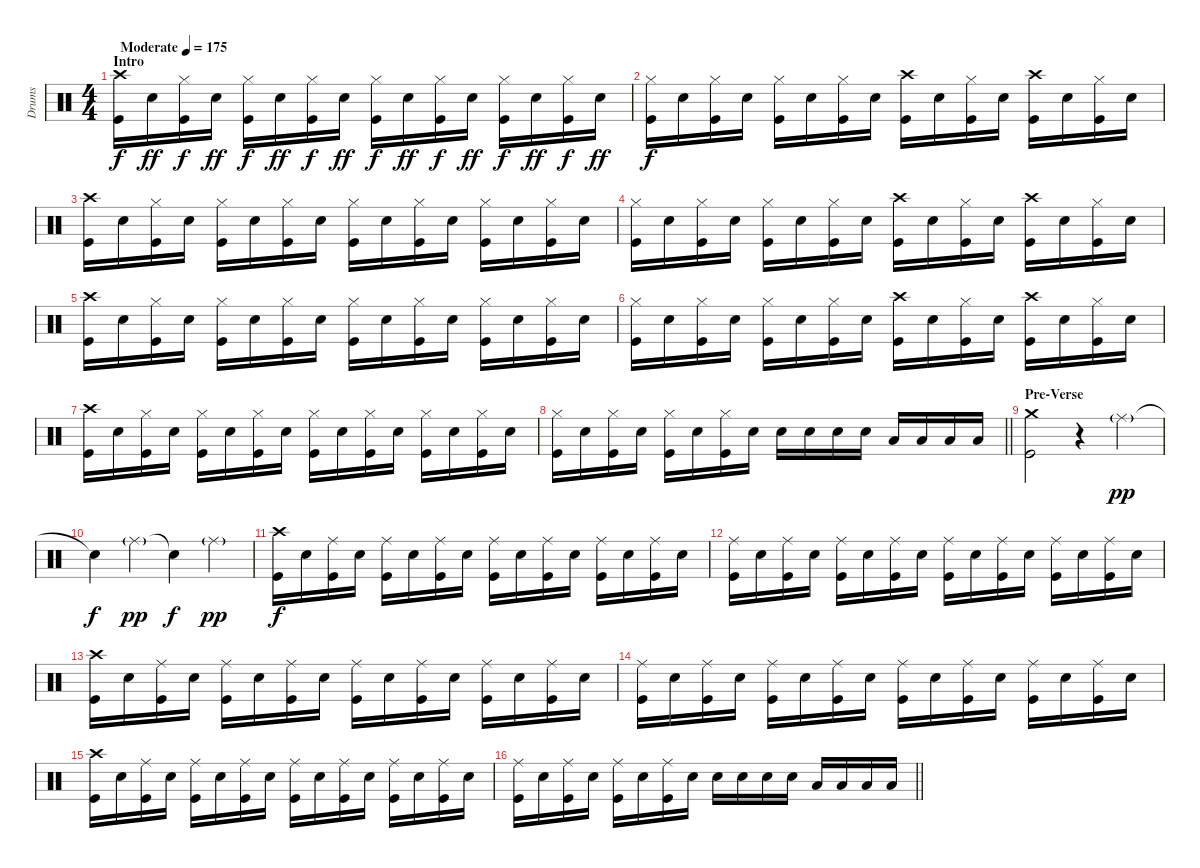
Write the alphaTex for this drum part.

\track ("Drums" "Drums") {instrument percussion}
\staff {score}
\articulation defaults
\ts (4 4)
\section ("" "Intro")
\tempo (175 "Moderate")
\clef neutral
\ks c
("Crash high (hit)" "Kick (hit)").16{dy f} "Snare (hit) 2".16{dy ff} ("Hi-Hat (closed)" "Kick (hit)").16{dy f} "Snare (hit) 2".16{dy ff} ("Hi-Hat (closed)" "Kick (hit)").16{dy f} "Snare (hit) 2".16{dy ff} ("Hi-Hat (closed)" "Kick (hit)").16{dy f} "Snare (hit) 2".16{dy ff} ("Hi-Hat (closed)" "Kick (hit)").16{dy f} "Snare (hit) 2".16{dy ff} ("Hi-Hat (closed)" "Kick (hit)").16{dy f} "Snare (hit) 2".16{dy ff} ("Hi-Hat (closed)" "Kick (hit)").16{dy f} "Snare (hit) 2".16{dy ff} ("Hi-Hat (closed)" "Kick (hit)").16{dy f} "Snare (hit) 2".16{dy ff} |
("Hi-Hat (closed)" "Kick (hit)").16{dy f} "Snare (hit) 2".16 ("Hi-Hat (closed)" "Kick (hit)").16 "Snare (hit) 2".16 ("Hi-Hat (closed)" "Kick (hit)").16 "Snare (hit) 2".16 ("Hi-Hat (closed)" "Kick (hit)").16 "Snare (hit) 2".16 ("Crash high (hit)" "Kick (hit)").16 "Snare (hit) 2".16 ("Hi-Hat (closed)" "Kick (hit)").16 "Snare (hit) 2".16 ("Crash high (hit)" "Kick (hit)").16 "Snare (hit) 2".16 ("Hi-Hat (closed)" "Kick (hit)").16 "Snare (hit) 2".16 |
("Crash high (hit)" "Kick (hit)").16 "Snare (hit) 2".16 ("Hi-Hat (closed)" "Kick (hit)").16 "Snare (hit) 2".16 ("Hi-Hat (closed)" "Kick (hit)").16 "Snare (hit) 2".16 ("Hi-Hat (closed)" "Kick (hit)").16 "Snare (hit) 2".16 ("Hi-Hat (closed)" "Kick (hit)").16 "Snare (hit) 2".16 ("Hi-Hat (closed)" "Kick (hit)").16 "Snare (hit) 2".16 ("Hi-Hat (closed)" "Kick (hit)").16 "Snare (hit) 2".16 ("Hi-Hat (closed)" "Kick (hit)").16 "Snare (hit) 2".16 |
("Hi-Hat (closed)" "Kick (hit)").16 "Snare (hit) 2".16 ("Hi-Hat (closed)" "Kick (hit)").16 "Snare (hit) 2".16 ("Hi-Hat (closed)" "Kick (hit)").16 "Snare (hit) 2".16 ("Hi-Hat (closed)" "Kick (hit)").16 "Snare (hit) 2".16 ("Crash high (hit)" "Kick (hit)").16 "Snare (hit) 2".16 ("Hi-Hat (closed)" "Kick (hit)").16 "Snare (hit) 2".16 ("Crash high (hit)" "Kick (hit)").16 "Snare (hit) 2".16 ("Hi-Hat (closed)" "Kick (hit)").16 "Snare (hit) 2".16 |
("Crash high (hit)" "Kick (hit)").16 "Snare (hit) 2".16 ("Hi-Hat (closed)" "Kick (hit)").16 "Snare (hit) 2".16 ("Hi-Hat (closed)" "Kick (hit)").16 "Snare (hit) 2".16 ("Hi-Hat (closed)" "Kick (hit)").16 "Snare (hit) 2".16 ("Hi-Hat (closed)" "Kick (hit)").16 "Snare (hit) 2".16 ("Hi-Hat (closed)" "Kick (hit)").16 "Snare (hit) 2".16 ("Hi-Hat (closed)" "Kick (hit)").16 "Snare (hit) 2".16 ("Hi-Hat (closed)" "Kick (hit)").16 "Snare (hit) 2".16 |
("Hi-Hat (closed)" "Kick (hit)").16 "Snare (hit) 2".16 ("Hi-Hat (closed)" "Kick (hit)").16 "Snare (hit) 2".16 ("Hi-Hat (closed)" "Kick (hit)").16 "Snare (hit) 2".16 ("Hi-Hat (closed)" "Kick (hit)").16 "Snare (hit) 2".16 ("Crash high (hit)" "Kick (hit)").16 "Snare (hit) 2".16 ("Hi-Hat (closed)" "Kick (hit)").16 "Snare (hit) 2".16 ("Crash high (hit)" "Kick (hit)").16 "Snare (hit) 2".16 ("Hi-Hat (closed)" "Kick (hit)").16 "Snare (hit) 2".16 |
("Crash high (hit)" "Kick (hit)").16 "Snare (hit) 2".16 ("Hi-Hat (closed)" "Kick (hit)").16 "Snare (hit) 2".16 ("Hi-Hat (closed)" "Kick (hit)").16 "Snare (hit) 2".16 ("Hi-Hat (closed)" "Kick (hit)").16 "Snare (hit) 2".16 ("Hi-Hat (closed)" "Kick (hit)").16 "Snare (hit) 2".16 ("Hi-Hat (closed)" "Kick (hit)").16 "Snare (hit) 2".16 ("Hi-Hat (closed)" "Kick (hit)").16 "Snare (hit) 2".16 ("Hi-Hat (closed)" "Kick (hit)").16 "Snare (hit) 2".16 |
\barLineRight lightlight
("Hi-Hat (closed)" "Kick (hit)").16 "Snare (hit) 2".16 ("Hi-Hat (closed)" "Kick (hit)").16 "Snare (hit) 2".16 ("Hi-Hat (closed)" "Kick (hit)").16 "Snare (hit) 2".16 ("Hi-Hat (closed)" "Kick (hit)").16 "Snare (hit) 2".16 "Snare (hit) 2".16 "Snare (hit) 2".16 "Snare (hit) 2".16 "Snare (hit) 2".16 "Low Floor Tom (hit)".16 "Low Floor Tom (hit)".16 "Low Floor Tom (hit)".16 "Low Floor Tom (hit)".16 |
\section ("" "Pre-Verse")
("Crash medium (hit)" "Kick (hit)").2 r.4 "Ride (middle)"{g}.4{dy pp} |
"Snare (hit)"{t}.4{dy f} "Ride (middle)"{g}.4{dy pp} "Snare (hit)"{t}.4{dy f} "Ride (middle)"{g}.4{dy pp} |
("Crash high (hit)" "Kick (hit)").16{dy f} "Snare (hit) 2".16 ("Ride (middle)" "Kick (hit)").16 "Snare (hit) 2".16 ("Ride (middle)" "Kick (hit)").16 "Snare (hit) 2".16 ("Ride (middle)" "Kick (hit)").16 "Snare (hit) 2".16 ("Ride (middle)" "Kick (hit)").16 "Snare (hit) 2".16 ("Ride (middle)" "Kick (hit)").16 "Snare (hit) 2".16 ("Ride (middle)" "Kick (hit)").16 "Snare (hit) 2".16 ("Ride (middle)" "Kick (hit)").16 "Snare (hit) 2".16 |
("Ride (middle)" "Kick (hit)").16 "Snare (hit) 2".16 ("Ride (middle)" "Kick (hit)").16 "Snare (hit) 2".16 ("Ride (middle)" "Kick (hit)").16 "Snare (hit) 2".16 ("Ride (middle)" "Kick (hit)").16 "Snare (hit) 2".16 ("Ride (middle)" "Kick (hit)").16 "Snare (hit) 2".16 ("Ride (middle)" "Kick (hit)").16 "Snare (hit) 2".16 ("Ride (middle)" "Kick (hit)").16 "Snare (hit) 2".16 ("Ride (middle)" "Kick (hit)").16 "Snare (hit) 2".16 |
("Crash high (hit)" "Kick (hit)").16 "Snare (hit) 2".16 ("Ride (middle)" "Kick (hit)").16 "Snare (hit) 2".16 ("Ride (middle)" "Kick (hit)").16 "Snare (hit) 2".16 ("Ride (middle)" "Kick (hit)").16 "Snare (hit) 2".16 ("Ride (middle)" "Kick (hit)").16 "Snare (hit) 2".16 ("Ride (middle)" "Kick (hit)").16 "Snare (hit) 2".16 ("Ride (middle)" "Kick (hit)").16 "Snare (hit) 2".16 ("Ride (middle)" "Kick (hit)").16 "Snare (hit) 2".16 |
("Ride (middle)" "Kick (hit)").16 "Snare (hit) 2".16 ("Ride (middle)" "Kick (hit)").16 "Snare (hit) 2".16 ("Ride (middle)" "Kick (hit)").16 "Snare (hit) 2".16 ("Ride (middle)" "Kick (hit)").16 "Snare (hit) 2".16 ("Ride (middle)" "Kick (hit)").16 "Snare (hit) 2".16 ("Ride (middle)" "Kick (hit)").16 "Snare (hit) 2".16 ("Ride (middle)" "Kick (hit)").16 "Snare (hit) 2".16 ("Ride (middle)" "Kick (hit)").16 "Snare (hit) 2".16 |
("Crash high (hit)" "Kick (hit)").16 "Snare (hit) 2".16 ("Ride (middle)" "Kick (hit)").16 "Snare (hit) 2".16 ("Ride (middle)" "Kick (hit)").16 "Snare (hit) 2".16 ("Ride (middle)" "Kick (hit)").16 "Snare (hit) 2".16 ("Ride (middle)" "Kick (hit)").16 "Snare (hit) 2".16 ("Ride (middle)" "Kick (hit)").16 "Snare (hit) 2".16 ("Ride (middle)" "Kick (hit)").16 "Snare (hit) 2".16 ("Ride (middle)" "Kick (hit)").16 "Snare (hit) 2".16 |
\barLineRight lightlight
("Ride (middle)" "Kick (hit)").16 "Snare (hit) 2".16 ("Ride (middle)" "Kick (hit)").16 "Snare (hit) 2".16 ("Ride (middle)" "Kick (hit)").16 "Snare (hit) 2".16 ("Ride (middle)" "Kick (hit)").16 "Snare (hit) 2".16 "Snare (hit) 2".16 "Snare (hit) 2".16 "Snare (hit) 2".16 "Snare (hit) 2".16 "Low Floor Tom (hit)".16 "Low Floor Tom (hit)".16 "Low Floor Tom (hit)".16 "Low Floor Tom (hit)".16
